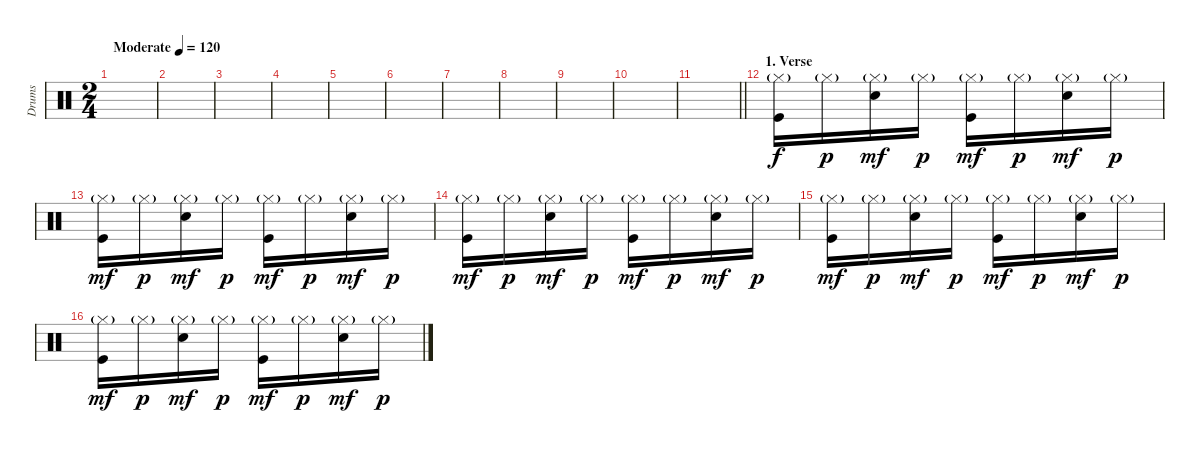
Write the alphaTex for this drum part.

\track ("Drums" "Drums") {instrument percussion}
\staff {score}
\articulation defaults
\ts (2 4)
\tempo (120 "Moderate")
\clef neutral
\ks c
|
|
|
|
|
|
|
|
|
|
\barLineRight lightlight
|
\section ("" "1. Verse")
("Hi-Hat (closed)"{g} "Kick (hit)").16 "Hi-Hat (closed)"{g}.16{dy p} ("Hi-Hat (closed)"{g} "Snare (hit) 2").16{dy mf} "Hi-Hat (closed)"{g}.16{dy p} ("Hi-Hat (closed)"{g} "Kick (hit)").16{dy mf} "Hi-Hat (closed)"{g}.16{dy p} ("Hi-Hat (closed)"{g} "Snare (hit) 2").16{dy mf} "Hi-Hat (closed)"{g}.16{dy p} |
("Hi-Hat (closed)"{g} "Kick (hit)").16{dy mf} "Hi-Hat (closed)"{g}.16{dy p} ("Hi-Hat (closed)"{g} "Snare (hit) 2").16{dy mf} "Hi-Hat (closed)"{g}.16{dy p} ("Hi-Hat (closed)"{g} "Kick (hit)").16{dy mf} "Hi-Hat (closed)"{g}.16{dy p} ("Hi-Hat (closed)"{g} "Snare (hit) 2").16{dy mf} "Hi-Hat (closed)"{g}.16{dy p} |
("Hi-Hat (closed)"{g} "Kick (hit)").16{dy mf} "Hi-Hat (closed)"{g}.16{dy p} ("Hi-Hat (closed)"{g} "Snare (hit) 2").16{dy mf} "Hi-Hat (closed)"{g}.16{dy p} ("Hi-Hat (closed)"{g} "Kick (hit)").16{dy mf} "Hi-Hat (closed)"{g}.16{dy p} ("Hi-Hat (closed)"{g} "Snare (hit) 2").16{dy mf} "Hi-Hat (closed)"{g}.16{dy p} |
("Hi-Hat (closed)"{g} "Kick (hit)").16{dy mf} "Hi-Hat (closed)"{g}.16{dy p} ("Hi-Hat (closed)"{g} "Snare (hit) 2").16{dy mf} "Hi-Hat (closed)"{g}.16{dy p} ("Hi-Hat (closed)"{g} "Kick (hit)").16{dy mf} "Hi-Hat (closed)"{g}.16{dy p} ("Hi-Hat (closed)"{g} "Snare (hit) 2").16{dy mf} "Hi-Hat (closed)"{g}.16{dy p} |
("Hi-Hat (closed)"{g} "Kick (hit)").16{dy mf} "Hi-Hat (closed)"{g}.16{dy p} ("Hi-Hat (closed)"{g} "Snare (hit) 2").16{dy mf} "Hi-Hat (closed)"{g}.16{dy p} ("Hi-Hat (closed)"{g} "Kick (hit)").16{dy mf} "Hi-Hat (closed)"{g}.16{dy p} ("Hi-Hat (closed)"{g} "Snare (hit) 2").16{dy mf} "Hi-Hat (closed)"{g}.16{dy p}
